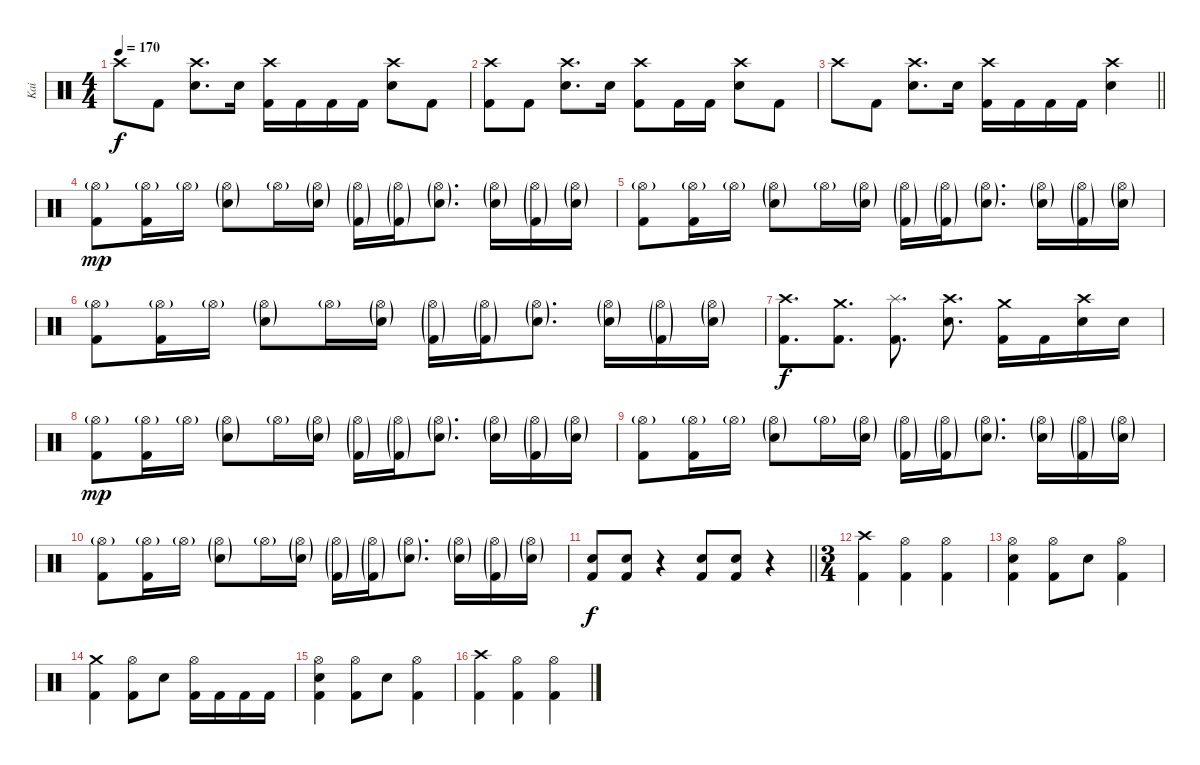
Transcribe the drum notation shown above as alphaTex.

\track ("Kai" "Kai") {instrument percussion}
\staff {score}
\articulation defaults
\ts (4 4)
\tempo 170
\clef neutral
\ks c "Crash high (hit)".8{dy f} "Kick (hit) 2".8
("Crash high (hit)" "Electric Snare (hit)").8{d} "Electric Snare (hit)".16 ("Crash high (hit)" "Kick (hit) 2").16 "Kick (hit) 2".16 "Kick (hit) 2".16 "Kick (hit) 2".16 ("Crash high (hit)" "Electric Snare (hit)").8 "Kick (hit) 2".8 |
("Crash high (hit)" "Kick (hit) 2").8 "Kick (hit) 2".8 ("Crash high (hit)" "Electric Snare (hit)").8{d} "Electric Snare (hit)".16 ("Crash high (hit)" "Kick (hit) 2").8 "Kick (hit) 2".16 "Kick (hit) 2".16 ("Crash high (hit)" "Electric Snare (hit)").8 "Kick (hit) 2".8 |
\barLineRight lightlight "Crash high (hit)".8 "Kick (hit) 2".8
("Crash high (hit)" "Electric Snare (hit)").8{d} "Electric Snare (hit)".16 ("Crash high (hit)" "Kick (hit) 2").16 "Kick (hit) 2".16 "Kick (hit) 2".16 "Kick (hit) 2".16 ("Crash high (hit)" "Electric Snare (hit)").4 |
\section ("" "")
("Hi-Hat (open)"{g} "Kick (hit) 2").8{dy mp} ("Hi-Hat (open)"{g} "Kick (hit) 2").16 "Hi-Hat (open)"{g}.16 ("Hi-Hat (open)"{g} "Electric Snare (hit)"{g}).8 "Hi-Hat (open)"{g}.16 ("Hi-Hat (open)"{g} "Electric Snare (hit)"{g}).16 ("Hi-Hat (open)"{g} "Kick (hit) 2"{g}).16 ("Hi-Hat (open)"{g} "Kick (hit) 2"{g}).16 ("Hi-Hat (open)"{g} "Electric Snare (hit)"{g}).8{d} ("Hi-Hat (open)"{g} "Electric Snare (hit)"{g}).16 ("Hi-Hat (open)"{g} "Kick (hit) 2"{g}).16 ("Hi-Hat (open)"{g} "Electric Snare (hit)"{g}).16 |
("Hi-Hat (open)"{g} "Kick (hit) 2").8 ("Hi-Hat (open)"{g} "Kick (hit) 2").16 "Hi-Hat (open)"{g}.16 ("Hi-Hat (open)"{g} "Electric Snare (hit)"{g}).8 "Hi-Hat (open)"{g}.16 ("Hi-Hat (open)"{g} "Electric Snare (hit)"{g}).16 ("Hi-Hat (open)"{g} "Kick (hit) 2"{g}).16 ("Hi-Hat (open)"{g} "Kick (hit) 2"{g}).16 ("Hi-Hat (open)"{g} "Electric Snare (hit)"{g}).8{d} ("Hi-Hat (open)"{g} "Electric Snare (hit)"{g}).16 ("Hi-Hat (open)"{g} "Kick (hit) 2"{g}).16 ("Hi-Hat (open)"{g} "Electric Snare (hit)"{g}).16 |
("Hi-Hat (open)"{g} "Kick (hit) 2").8 ("Hi-Hat (open)"{g} "Kick (hit) 2").16 "Hi-Hat (open)"{g}.16 ("Hi-Hat (open)"{g} "Electric Snare (hit)"{g}).8 "Hi-Hat (open)"{g}.16 ("Hi-Hat (open)"{g} "Electric Snare (hit)"{g}).16 ("Hi-Hat (open)"{g} "Kick (hit) 2"{g}).16 ("Hi-Hat (open)"{g} "Kick (hit) 2"{g}).16 ("Hi-Hat (open)"{g} "Electric Snare (hit)"{g}).8{d} ("Hi-Hat (open)"{g} "Electric Snare (hit)"{g}).16 ("Hi-Hat (open)"{g} "Kick (hit) 2"{g}).16 ("Hi-Hat (open)"{g} "Electric Snare (hit)"{g}).16 |
("Crash high (hit)" "Kick (hit) 2").8{d dy f} ("Crash medium (hit)" "Kick (hit) 2").8{d} ("Splash (hit)" "Kick (hit) 2").8{d} ("Crash high (hit)" "Electric Snare (hit)").8{d} ("Crash medium (hit)" "Kick (hit) 2").16 "Kick (hit) 2".16 ("Crash high (hit)" "Electric Snare (hit)").16 "Electric Snare (hit)".16 |
("Hi-Hat (open)"{g} "Kick (hit) 2").8{dy mp} ("Hi-Hat (open)"{g} "Kick (hit) 2").16 "Hi-Hat (open)"{g}.16 ("Hi-Hat (open)"{g} "Electric Snare (hit)"{g}).8 "Hi-Hat (open)"{g}.16 ("Hi-Hat (open)"{g} "Electric Snare (hit)"{g}).16 ("Hi-Hat (open)"{g} "Kick (hit) 2"{g}).16 ("Hi-Hat (open)"{g} "Kick (hit) 2"{g}).16 ("Hi-Hat (open)"{g} "Electric Snare (hit)"{g}).8{d} ("Hi-Hat (open)"{g} "Electric Snare (hit)"{g}).16 ("Hi-Hat (open)"{g} "Kick (hit) 2"{g}).16 ("Hi-Hat (open)"{g} "Electric Snare (hit)"{g}).16 |
("Hi-Hat (open)"{g} "Kick (hit) 2").8 ("Hi-Hat (open)"{g} "Kick (hit) 2").16 "Hi-Hat (open)"{g}.16 ("Hi-Hat (open)"{g} "Electric Snare (hit)"{g}).8 "Hi-Hat (open)"{g}.16 ("Hi-Hat (open)"{g} "Electric Snare (hit)"{g}).16 ("Hi-Hat (open)"{g} "Kick (hit) 2"{g}).16 ("Hi-Hat (open)"{g} "Kick (hit) 2"{g}).16 ("Hi-Hat (open)"{g} "Electric Snare (hit)"{g}).8{d} ("Hi-Hat (open)"{g} "Electric Snare (hit)"{g}).16 ("Hi-Hat (open)"{g} "Kick (hit) 2"{g}).16 ("Hi-Hat (open)"{g} "Electric Snare (hit)"{g}).16 |
("Hi-Hat (open)"{g} "Kick (hit) 2").8 ("Hi-Hat (open)"{g} "Kick (hit) 2").16 "Hi-Hat (open)"{g}.16 ("Hi-Hat (open)"{g} "Electric Snare (hit)"{g}).8 "Hi-Hat (open)"{g}.16 ("Hi-Hat (open)"{g} "Electric Snare (hit)"{g}).16 ("Hi-Hat (open)"{g} "Kick (hit) 2"{g}).16 ("Hi-Hat (open)"{g} "Kick (hit) 2"{g}).16 ("Hi-Hat (open)"{g} "Electric Snare (hit)"{g}).8{d} ("Hi-Hat (open)"{g} "Electric Snare (hit)"{g}).16 ("Hi-Hat (open)"{g} "Kick (hit) 2"{g}).16 ("Hi-Hat (open)"{g} "Electric Snare (hit)"{g}).16 |
\barLineRight lightlight
("Electric Snare (hit)" "Kick (hit) 2").8{dy f} ("Electric Snare (hit)" "Kick (hit) 2").8 r.4 ("Electric Snare (hit)" "Kick (hit) 2").8 ("Electric Snare (hit)" "Kick (hit) 2").8 r.4 |
\ts (3 4)
\section ("" "")
("Crash high (hit)" "Kick (hit) 2").4 ("Hi-Hat (open)" "Kick (hit) 2").4 ("Hi-Hat (open)" "Kick (hit) 2").4 |
("Hi-Hat (open)" "Electric Snare (hit)" "Kick (hit) 2").4 ("Hi-Hat (open)" "Kick (hit) 2").8 "Electric Snare (hit)".8 ("Hi-Hat (open)" "Kick (hit) 2").4 |
("Crash medium (hit)" "Kick (hit) 2").4 ("Hi-Hat (open)" "Kick (hit) 2").8 "Electric Snare (hit)".8 ("Hi-Hat (open)" "Kick (hit) 2").16 "Kick (hit) 2".16 "Kick (hit) 2".16 "Kick (hit) 2".16 |
("Hi-Hat (open)" "Electric Snare (hit)" "Kick (hit) 2").4 ("Hi-Hat (open)" "Kick (hit) 2").8 "Electric Snare (hit)".8 ("Hi-Hat (open)" "Kick (hit) 2").4 |
("Crash high (hit)" "Kick (hit) 2").4 ("Hi-Hat (open)" "Kick (hit) 2").4 ("Hi-Hat (open)" "Kick (hit) 2").4
